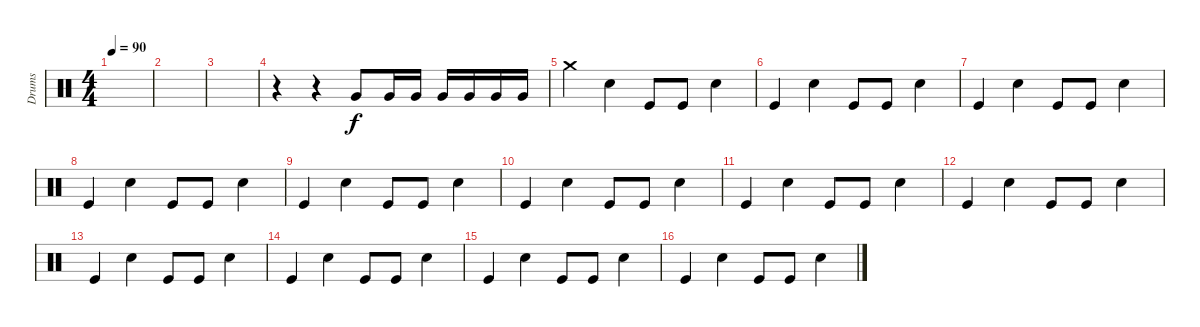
\track ("Drums" "Drums") {instrument percussion}
\staff {score}
\articulation defaults
\ts (4 4)
\tempo 90
\clef neutral
\ks c
|
|
|
r.4 r.4 "Very Low Tom (hit)".8 "Very Low Tom (hit)".16 "Very Low Tom (hit)".16 "Very Low Tom (hit)".16 "Very Low Tom (hit)".16 "Very Low Tom (hit)".16 "Very Low Tom (hit)".16 |
"Crash medium (hit)".4 "Electric Snare (hit)".4 "Kick (hit)".8 "Kick (hit)".8 "Electric Snare (hit)".4 |
"Kick (hit)".4 "Electric Snare (hit)".4 "Kick (hit)".8 "Kick (hit)".8 "Electric Snare (hit)".4 |
"Kick (hit)".4 "Electric Snare (hit)".4 "Kick (hit)".8 "Kick (hit)".8 "Electric Snare (hit)".4 |
"Kick (hit)".4 "Electric Snare (hit)".4 "Kick (hit)".8 "Kick (hit)".8 "Electric Snare (hit)".4 |
"Kick (hit)".4 "Electric Snare (hit)".4 "Kick (hit)".8 "Kick (hit)".8 "Electric Snare (hit)".4 |
"Kick (hit)".4 "Electric Snare (hit)".4 "Kick (hit)".8 "Kick (hit)".8 "Electric Snare (hit)".4 |
"Kick (hit)".4 "Electric Snare (hit)".4 "Kick (hit)".8 "Kick (hit)".8 "Electric Snare (hit)".4 |
"Kick (hit)".4 "Electric Snare (hit)".4 "Kick (hit)".8 "Kick (hit)".8 "Electric Snare (hit)".4 |
"Kick (hit)".4 "Electric Snare (hit)".4 "Kick (hit)".8 "Kick (hit)".8 "Electric Snare (hit)".4 |
"Kick (hit)".4 "Electric Snare (hit)".4 "Kick (hit)".8 "Kick (hit)".8 "Electric Snare (hit)".4 |
"Kick (hit)".4 "Electric Snare (hit)".4 "Kick (hit)".8 "Kick (hit)".8 "Electric Snare (hit)".4 |
"Kick (hit)".4 "Electric Snare (hit)".4 "Kick (hit)".8 "Kick (hit)".8 "Electric Snare (hit)".4
